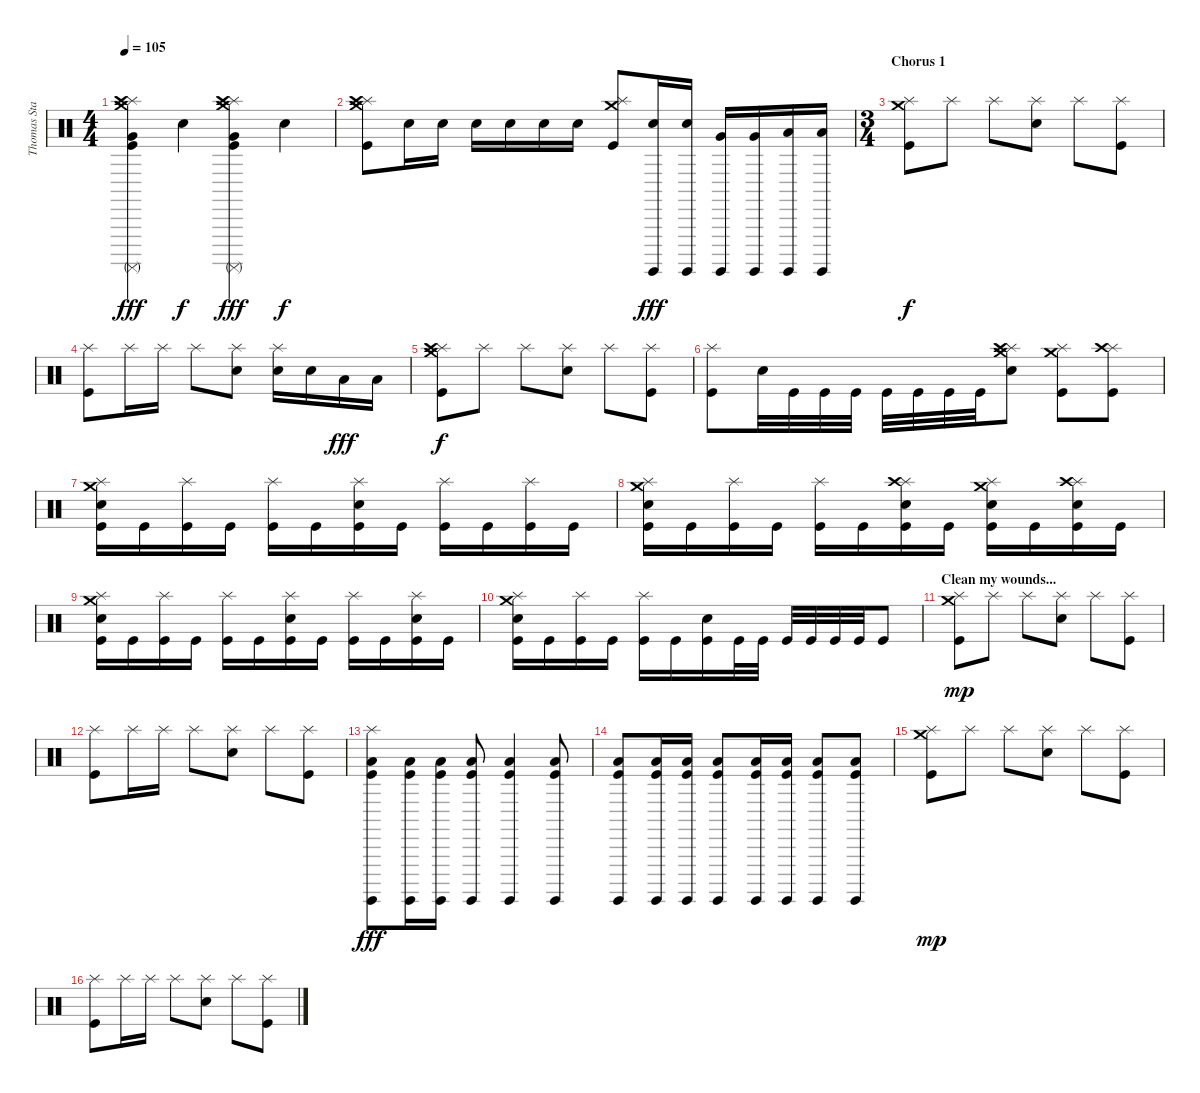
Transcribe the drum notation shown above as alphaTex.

\track ("Thomas Stauch" "Thomas Sta") {instrument percussion}
\staff {score}
\articulation defaults
\ts (4 4)
\tempo 105
\clef neutral
\ks c
("Crash medium (hit)" "Splash (hit)" "Crash high (hit)" "Surdo (mute)" "Very Low Tom (hit)" "Kick (hit)").4{dy fff} "Electric Snare (hit)".4{dy f} ("Crash medium (hit)" "Splash (hit)" "Crash high (hit)" "Surdo (mute)" "Very Low Tom (hit)" "Kick (hit)").4{dy fff} "Electric Snare (hit)".4{dy f} |
("Crash medium (hit)" "Splash (hit)" "Crash high (hit)" "Kick (hit)").8 "Electric Snare (hit)".16 "Electric Snare (hit)".16 "Electric Snare (hit)".16 "Electric Snare (hit)".16 "Electric Snare (hit)".16 "Electric Snare (hit)".16 ("Crash medium (hit)" "Splash (hit)" "Kick (hit)").8 ("Surdo (hit)" "Electric Snare (hit)").16{dy fff} ("Surdo (hit)" "Electric Snare (hit)").16 ("Surdo (hit)" "Very Low Tom (hit)").16 ("Surdo (hit)" "Very Low Tom (hit)").16 ("Surdo (hit)" "Low Floor Tom (hit)").16 ("Surdo (hit)" "Low Floor Tom (hit)").16 |
\ts (3 4)
\section ("" "Chorus 1")
("Crash medium (hit)" "Splash (hit)" "Kick (hit)").8{dy f} "Splash (hit)".8 "Splash (hit)".8 ("Splash (hit)" "Electric Snare (hit)").8 "Splash (hit)".8 ("Splash (hit)" "Kick (hit)").8 |
("Splash (hit)" "Kick (hit)").8 "Splash (hit)".16 "Splash (hit)".16 "Splash (hit)".8 ("Splash (hit)" "Electric Snare (hit)").8 ("Splash (hit)" "Electric Snare (hit)").16 "Electric Snare (hit)".16 "Low Floor Tom (hit)".16{dy fff} "Low Floor Tom (hit)".16 |
("Crash medium (hit)" "Splash (hit)" "Crash high (hit)" "Kick (hit)").8{dy f} "Splash (hit)".8 "Splash (hit)".8 ("Splash (hit)" "Electric Snare (hit)").8 "Splash (hit)".8 ("Splash (hit)" "Kick (hit)").8 |
("Splash (hit)" "Kick (hit)").8 "Electric Snare (hit)".32 "Kick (hit)".32 "Kick (hit)".32 "Kick (hit)".32 "Kick (hit)".32 "Kick (hit)".32 "Kick (hit)".32 "Kick (hit)".32 ("Crash medium (hit)" "Splash (hit)" "Crash high (hit)" "Electric Snare (hit)").8 ("Crash medium (hit)" "Splash (hit)" "Kick (hit)").8 ("Splash (hit)" "Crash high (hit)" "Kick (hit)").8 |
("Crash medium (hit)" "Splash (hit)" "Electric Snare (hit)" "Kick (hit)").16 "Kick (hit)".16 ("Splash (hit)" "Kick (hit)").16 "Kick (hit)".16 ("Splash (hit)" "Kick (hit)").16 "Kick (hit)".16 ("Splash (hit)" "Electric Snare (hit)" "Kick (hit)").16 "Kick (hit)".16 ("Splash (hit)" "Kick (hit)").16 "Kick (hit)".16 ("Splash (hit)" "Kick (hit)").16 "Kick (hit)".16 |
("Crash medium (hit)" "Splash (hit)" "Electric Snare (hit)" "Kick (hit)").16 "Kick (hit)".16 ("Splash (hit)" "Kick (hit)").16 "Kick (hit)".16 ("Splash (hit)" "Kick (hit)").16 "Kick (hit)".16 ("Splash (hit)" "Crash high (hit)" "Electric Snare (hit)" "Kick (hit)").16 "Kick (hit)".16 ("Crash medium (hit)" "Splash (hit)" "Electric Snare (hit)" "Kick (hit)").16 "Kick (hit)".16 ("Splash (hit)" "Crash high (hit)" "Electric Snare (hit)" "Kick (hit)").16 "Kick (hit)".16 |
("Crash medium (hit)" "Splash (hit)" "Electric Snare (hit)" "Kick (hit)").16 "Kick (hit)".16 ("Splash (hit)" "Kick (hit)").16 "Kick (hit)".16 ("Splash (hit)" "Kick (hit)").16 "Kick (hit)".16 ("Splash (hit)" "Electric Snare (hit)" "Kick (hit)").16 "Kick (hit)".16 ("Splash (hit)" "Kick (hit)").16 "Kick (hit)".16 ("Splash (hit)" "Electric Snare (hit)" "Kick (hit)").16 "Kick (hit)".16 |
("Crash medium (hit)" "Splash (hit)" "Electric Snare (hit)" "Kick (hit)").16 "Kick (hit)".16 ("Splash (hit)" "Kick (hit)").16 "Kick (hit)".16 ("Splash (hit)" "Kick (hit)").16 "Kick (hit)".16 ("Electric Snare (hit)" "Kick (hit)").16 "Kick (hit)".32 "Kick (hit)".32 "Kick (hit)".32 "Kick (hit)".32 "Kick (hit)".32 "Kick (hit)".32 "Kick (hit)".8 |
\section ("" "Clean my wounds...")
("Crash medium (hit)" "Splash (hit)" "Kick (hit)").8{dy mp} "Splash (hit)".8 "Splash (hit)".8 ("Splash (hit)" "Electric Snare (hit)").8 "Splash (hit)".8 ("Splash (hit)" "Kick (hit)").8 |
("Splash (hit)" "Kick (hit)").8 "Splash (hit)".16 "Splash (hit)".16 "Splash (hit)".8 ("Splash (hit)" "Electric Snare (hit)").8 "Splash (hit)".8 ("Splash (hit)" "Kick (hit)").8 |
("Splash (hit)" "Surdo (hit)" "Low Floor Tom (hit)" "Kick (hit)").8{dy fff} ("Surdo (hit)" "Low Floor Tom (hit)" "Kick (hit)").16 ("Surdo (hit)" "Low Floor Tom (hit)" "Kick (hit)").16 ("Surdo (hit)" "Low Floor Tom (hit)" "Kick (hit)").8 ("Surdo (hit)" "Low Floor Tom (hit)" "Kick (hit)").4 ("Surdo (hit)" "Low Floor Tom (hit)" "Kick (hit)").8 |
("Surdo (hit)" "Low Floor Tom (hit)" "Kick (hit)").8 ("Surdo (hit)" "Low Floor Tom (hit)" "Kick (hit)").16 ("Surdo (hit)" "Low Floor Tom (hit)" "Kick (hit)").16 ("Surdo (hit)" "Low Floor Tom (hit)" "Kick (hit)").8 ("Surdo (hit)" "Low Floor Tom (hit)" "Kick (hit)").16 ("Surdo (hit)" "Low Floor Tom (hit)" "Kick (hit)").16 ("Surdo (hit)" "Low Floor Tom (hit)" "Kick (hit)").8 ("Surdo (hit)" "Low Floor Tom (hit)" "Kick (hit)").8 |
("Crash medium (hit)" "Splash (hit)" "Kick (hit)").8{dy mp} "Splash (hit)".8 "Splash (hit)".8 ("Splash (hit)" "Electric Snare (hit)").8 "Splash (hit)".8 ("Splash (hit)" "Kick (hit)").8 |
("Splash (hit)" "Kick (hit)").8 "Splash (hit)".16 "Splash (hit)".16 "Splash (hit)".8 ("Splash (hit)" "Electric Snare (hit)").8 "Splash (hit)".8 ("Splash (hit)" "Kick (hit)").8
